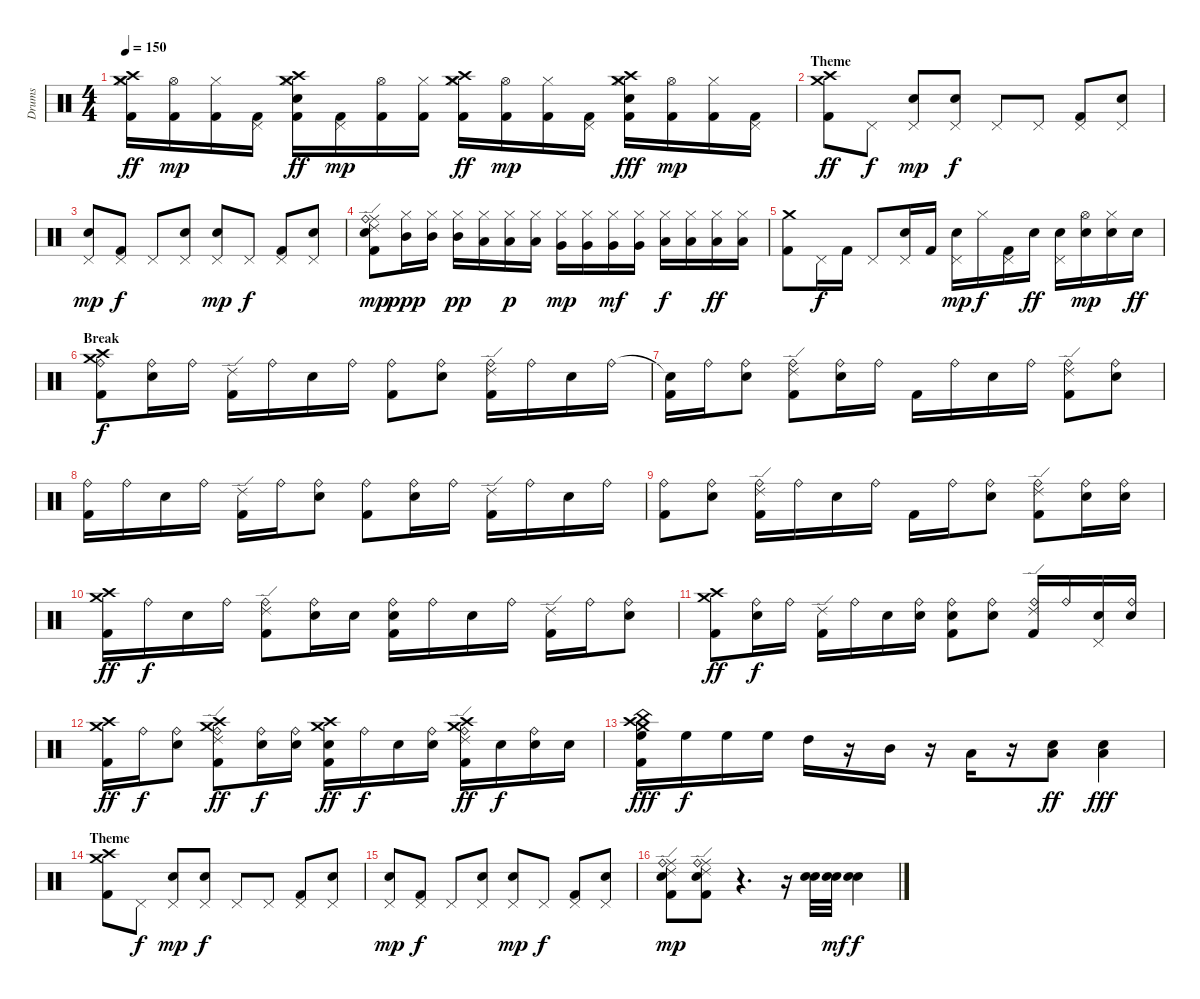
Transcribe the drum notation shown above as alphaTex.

\track ("Drums" "Drums") {instrument percussion}
\staff {score}
\articulation defaults
\ts (4 4)
\tempo 150
\clef neutral
\ks c
("Hi-Hat (closed)" "Crash medium (hit)" "Crash high (hit)" "Kick (hit) 2").16{dy ff} ("Hi-Hat (open)" "Kick (hit) 2").16{dy mp} ("Hi-Hat (closed)" "Kick (hit) 2").16 ("Pedal Hi-Hat (hit)" "Kick (hit) 2").16 ("Hi-Hat (closed)" "Crash high (hit)" "Crash medium (hit)" "Electric Snare (hit)" "Kick (hit) 2").16{dy ff} ("Pedal Hi-Hat (hit)" "Kick (hit) 2").16{dy mp} ("Hi-Hat (open)" "Kick (hit) 2").16 ("Hi-Hat (closed)" "Kick (hit) 2").16 ("Hi-Hat (closed)" "Crash medium (hit)" "Crash high (hit)" "Kick (hit) 2").16{dy ff} ("Hi-Hat (open)" "Kick (hit) 2").16{dy mp} ("Hi-Hat (closed)" "Kick (hit) 2").16 ("Pedal Hi-Hat (hit)" "Kick (hit) 2").16 ("Hi-Hat (closed)" "Crash high (hit)" "Crash medium (hit)" "Electric Snare (hit)" "Kick (hit) 2").16{dy fff} ("Hi-Hat (open)" "Kick (hit) 2").16{dy mp} ("Hi-Hat (closed)" "Kick (hit) 2").16 ("Pedal Hi-Hat (hit)" "Kick (hit) 2").16 |
\section ("" "Theme")
("Crash medium (hit)" "Crash high (hit)" "Kick (hit) 2").8{dy ff} "Pedal Hi-Hat (hit)".8{dy f} ("Pedal Hi-Hat (hit)" "Snare (hit) 2").8{dy mp} ("Pedal Hi-Hat (hit)" "Electric Snare (hit)").8{dy f} "Pedal Hi-Hat (hit)".8 "Pedal Hi-Hat (hit)".8 ("Pedal Hi-Hat (hit)" "Kick (hit) 2").8 ("Pedal Hi-Hat (hit)" "Electric Snare (hit)").8 |
("Pedal Hi-Hat (hit)" "Snare (hit) 2").8{dy mp} ("Pedal Hi-Hat (hit)" "Kick (hit) 2").8{dy f} "Pedal Hi-Hat (hit)".8 ("Pedal Hi-Hat (hit)" "Electric Snare (hit)").8 ("Pedal Hi-Hat (hit)" "Snare (hit) 2").8{dy mp} "Pedal Hi-Hat (hit)".8{dy f} ("Pedal Hi-Hat (hit)" "Kick (hit) 2").8 ("Pedal Hi-Hat (hit)" "Electric Snare (hit)").8 |
("Ride (middle)" "Ride (edge) 2" "Ride (bell)" "Snare (hit) 2" "Kick (hit) 2").8{dy mp} ("Hi-Hat (closed)" "Mid Tom (hit)").16{dy ppp} ("Hi-Hat (closed)" "Mid Tom (hit)").16 ("Hi-Hat (closed)" "Mid Tom (hit)").16{dy pp} ("Hi-Hat (closed)" "Low Tom (hit)").16 ("Hi-Hat (closed)" "Low Tom (hit)").16{dy p} ("Hi-Hat (closed)" "Low Tom (hit)").16 ("Hi-Hat (closed)" "Very Low Tom (hit)").16{dy mp} ("Hi-Hat (closed)" "Very Low Tom (hit)").16 ("Hi-Hat (closed)" "Very Low Tom (hit)").16{dy mf} ("Hi-Hat (closed)" "Very Low Tom (hit)").16 ("Hi-Hat (closed)" "Low Floor Tom (hit)").16{dy f} ("Hi-Hat (closed)" "Low Floor Tom (hit)").16 ("Hi-Hat (closed)" "Low Floor Tom (hit)").16{dy ff} ("Hi-Hat (closed)" "Low Floor Tom (hit)").16 |
("Crash medium (hit)" "Kick (hit) 2").8 "Pedal Hi-Hat (hit)".16{dy f} "Kick (hit) 2".16 "Pedal Hi-Hat (hit)".8 ("Pedal Hi-Hat (hit)" "Electric Snare (hit)").16 "Kick (hit) 2".16 ("Pedal Hi-Hat (hit)" "Snare (hit) 2").16{dy mp} "Hi-Hat (closed)".16{dy f} ("Pedal Hi-Hat (hit)" "Kick (hit) 2").16 "Electric Snare (hit)".16{dy ff} ("Pedal Hi-Hat (hit)" "Electric Snare (hit)").16 ("Hi-Hat (open)" "Snare (hit) 2").16{dy mp} ("Hi-Hat (closed)" "Snare (hit) 2").16 "Electric Snare (hit)".16{dy ff} |
\section ("" "Break")
("Ride (bell)" "Crash medium (hit)" "Crash high (hit)" "Kick (hit) 2").8{dy f} ("Ride (bell)" "Electric Snare (hit)").16 "Ride (bell)".16 ("Ride (edge) 2" "Kick (hit) 2").16 "Ride (bell)".16 "Electric Snare (hit)".16 "Ride (bell)".16 ("Ride (bell)" "Kick (hit) 2").8 ("Ride (bell)" "Electric Snare (hit)").8 ("Ride (bell)" "Ride (edge) 2" "Kick (hit) 2").16 "Ride (bell)".16 "Electric Snare (hit)".16 "Ride (bell)".16 |
("Snare (hit)"{t} "Kick (hit) 2").16 "Ride (bell)".16 ("Ride (bell)" "Electric Snare (hit)").8 ("Ride (bell)" "Ride (edge) 2" "Kick (hit) 2").8 ("Ride (bell)" "Electric Snare (hit)").16 "Ride (bell)".16 "Kick (hit) 2".16 "Ride (bell)".16 "Electric Snare (hit)".16 "Ride (bell)".16 ("Ride (bell)" "Ride (edge) 2" "Kick (hit) 2").8 ("Ride (bell)" "Electric Snare (hit)").8 |
("Ride (bell)" "Kick (hit) 2").16 "Ride (bell)".16 "Electric Snare (hit)".16 "Ride (bell)".16 ("Ride (edge) 2" "Kick (hit) 2").16 "Ride (bell)".16 ("Ride (bell)" "Electric Snare (hit)").8 ("Ride (bell)" "Kick (hit) 2").8 ("Ride (bell)" "Electric Snare (hit)").16 "Ride (bell)".16 ("Ride (edge) 2" "Kick (hit) 2").16 "Ride (bell)".16 "Electric Snare (hit)".16 "Ride (bell)".16 |
("Ride (bell)" "Kick (hit) 2").8 ("Ride (bell)" "Electric Snare (hit)").8 ("Ride (bell)" "Ride (edge) 2" "Kick (hit) 2").16 "Ride (bell)".16 "Electric Snare (hit)".16 "Ride (bell)".16 "Kick (hit) 2".16 "Ride (bell)".16 ("Ride (bell)" "Electric Snare (hit)").8 ("Ride (bell)" "Ride (edge) 2" "Kick (hit) 2").8 ("Ride (bell)" "Electric Snare (hit)").16 ("Ride (bell)" "Electric Snare (hit)").16 |
("Crash medium (hit)" "Crash high (hit)" "Kick (hit) 2").16{dy ff} "Ride (bell)".16{dy f} "Electric Snare (hit)".16 "Ride (bell)".16 ("Ride (bell)" "Ride (edge) 2" "Kick (hit) 2").8 ("Ride (bell)" "Electric Snare (hit)").16 "Electric Snare (hit)".16 ("Ride (bell)" "Electric Snare (hit)" "Kick (hit) 2").16 "Ride (bell)".16 "Electric Snare (hit)".16 "Ride (bell)".16 ("Ride (edge) 2" "Kick (hit) 2").16 "Ride (bell)".16 ("Ride (bell)" "Electric Snare (hit)").8 |
("Crash medium (hit)" "Crash high (hit)" "Kick (hit) 2").8{dy ff} ("Ride (bell)" "Electric Snare (hit)").16{dy f} "Ride (bell)".16 ("Ride (edge) 2" "Kick (hit) 2").16 "Ride (bell)".16 "Electric Snare (hit)".16 ("Ride (bell)" "Electric Snare (hit)").16 ("Ride (bell)" "Electric Snare (hit)" "Kick (hit) 2").8 ("Ride (bell)" "Electric Snare (hit)").8 ("Ride (bell)" "Ride (edge) 2" "Kick (hit) 2").16 "Ride (bell)".16 ("Pedal Hi-Hat (hit)" "Electric Snare (hit)").16 ("Ride (bell)" "Electric Snare (hit)").16 |
("Crash medium (hit)" "Crash high (hit)" "Kick (hit) 2").16{dy ff} "Ride (bell)".16{dy f} ("Ride (bell)" "Electric Snare (hit)").8 ("Ride (bell)" "Ride (edge) 2" "Crash medium (hit)" "Crash high (hit)" "Kick (hit) 2").8{dy ff} ("Ride (bell)" "Electric Snare (hit)").16{dy f} ("Ride (bell)" "Electric Snare (hit)").16 ("Crash medium (hit)" "Crash high (hit)" "Electric Snare (hit)" "Kick (hit) 2").16{dy ff} "Ride (bell)".16{dy f} "Electric Snare (hit)".16 ("Ride (bell)" "Electric Snare (hit)").16 ("Ride (bell)" "Ride (edge) 2" "Crash medium (hit)" "Crash high (hit)" "Kick (hit) 2").16{dy ff} "Electric Snare (hit)".16{dy f} ("Ride (bell)" "Electric Snare (hit)").16 "Electric Snare (hit)".16 |
("China (hit)" "Crash medium (hit)" "Crash high (hit)" "High Floor Tom (hit)" "Kick (hit) 2").16{dy fff} "High Floor Tom (hit)".16{dy f} "High Floor Tom (hit)".16 "High Floor Tom (hit)".16 "High Tom (hit)".16 r.16 "Mid Tom (hit)".16 r.16 "Low Tom (hit)".16 r.16 ("Low Floor Tom (hit)" "Electric Snare (hit)").8{dy ff} ("Low Floor Tom (hit)" "Electric Snare (hit)").4{dy fff} |
\section ("" "Theme")
("Crash medium (hit)" "Crash high (hit)" "Kick (hit) 2").8 "Pedal Hi-Hat (hit)".8{dy f} ("Pedal Hi-Hat (hit)" "Snare (hit) 2").8{dy mp} ("Pedal Hi-Hat (hit)" "Electric Snare (hit)").8{dy f} "Pedal Hi-Hat (hit)".8 "Pedal Hi-Hat (hit)".8 ("Pedal Hi-Hat (hit)" "Kick (hit) 2").8 ("Pedal Hi-Hat (hit)" "Electric Snare (hit)").8 |
("Pedal Hi-Hat (hit)" "Snare (hit) 2").8{dy mp} ("Pedal Hi-Hat (hit)" "Kick (hit) 2").8{dy f} "Pedal Hi-Hat (hit)".8 ("Pedal Hi-Hat (hit)" "Electric Snare (hit)").8 ("Pedal Hi-Hat (hit)" "Snare (hit) 2").8{dy mp} "Pedal Hi-Hat (hit)".8{dy f} ("Pedal Hi-Hat (hit)" "Kick (hit) 2").8 ("Pedal Hi-Hat (hit)" "Electric Snare (hit)").8 |
("Ride (middle)" "Ride (edge) 2" "Ride (bell)" "Snare (hit) 2" "Kick (hit) 2").8{dy mp} ("Ride (middle)" "Ride (edge) 2" "Ride (bell)" "Snare (hit) 2" "Kick (hit) 2").8 r.4{d} r.16 ("Snare (hit) 2" "Electric Snare (hit)").32 ("Snare (hit) 2" "Electric Snare (hit)").32{dy mf} ("Snare (hit) 2" "Electric Snare (hit)").4{dy f}
